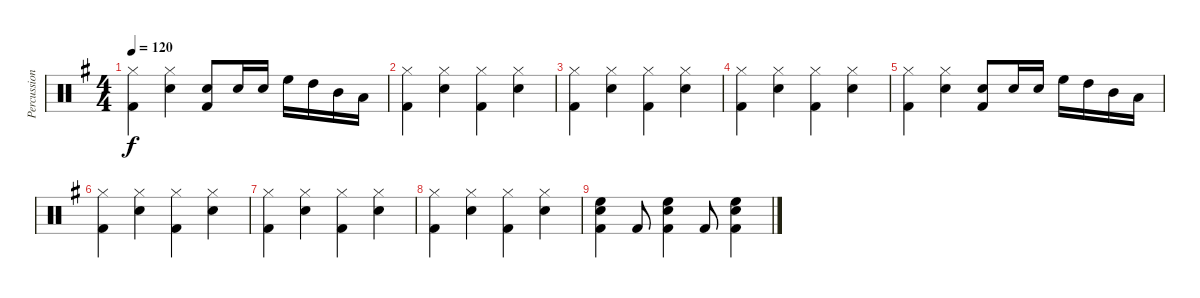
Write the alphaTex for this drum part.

\track ("Percussion" "Percussion") {instrument percussion}
\staff {score}
\articulation defaults
\ts (4 4)
\tempo 120
\clef neutral
\ks eminor
("Hi-Hat (closed)" "Kick (hit) 2").4{dy f} ("Hi-Hat (closed)" "Snare (hit) 2").4 ("Snare (hit) 2" "Kick (hit) 2").8 "Snare (hit) 2".16 "Snare (hit) 2".16 "High Floor Tom (hit)".16 "High Tom (hit)".16 "Mid Tom (hit)".16 "Low Tom (hit)".16 |
("Hi-Hat (closed)" "Kick (hit) 2").4 ("Hi-Hat (closed)" "Snare (hit) 2").4 ("Hi-Hat (closed)" "Kick (hit) 2").4 ("Hi-Hat (closed)" "Snare (hit) 2").4 |
("Hi-Hat (closed)" "Kick (hit) 2").4 ("Hi-Hat (closed)" "Snare (hit) 2").4 ("Hi-Hat (closed)" "Kick (hit) 2").4 ("Hi-Hat (closed)" "Snare (hit) 2").4 |
("Hi-Hat (closed)" "Kick (hit) 2").4 ("Hi-Hat (closed)" "Snare (hit) 2").4 ("Hi-Hat (closed)" "Kick (hit) 2").4 ("Hi-Hat (closed)" "Snare (hit) 2").4 |
("Hi-Hat (closed)" "Kick (hit) 2").4 ("Hi-Hat (closed)" "Snare (hit) 2").4 ("Snare (hit) 2" "Kick (hit) 2").8 "Snare (hit) 2".16 "Snare (hit) 2".16 "High Floor Tom (hit)".16 "High Tom (hit)".16 "Mid Tom (hit)".16 "Low Tom (hit)".16 |
("Hi-Hat (closed)" "Kick (hit) 2").4 ("Hi-Hat (closed)" "Snare (hit) 2").4 ("Hi-Hat (closed)" "Kick (hit) 2").4 ("Hi-Hat (closed)" "Snare (hit) 2").4 |
("Hi-Hat (closed)" "Kick (hit) 2").4 ("Hi-Hat (closed)" "Snare (hit) 2").4 ("Hi-Hat (closed)" "Kick (hit) 2").4 ("Hi-Hat (closed)" "Snare (hit) 2").4 |
("Hi-Hat (closed)" "Kick (hit) 2").4 ("Hi-Hat (closed)" "Snare (hit) 2").4 ("Hi-Hat (closed)" "Kick (hit) 2").4 ("Hi-Hat (closed)" "Snare (hit) 2").4 |
("Snare (hit) 2" "High Floor Tom (hit)" "Kick (hit) 2").4 "Kick (hit) 2".8 ("Snare (hit) 2" "High Floor Tom (hit)" "Kick (hit) 2").4 "Kick (hit) 2".8 ("Snare (hit) 2" "High Floor Tom (hit)" "Kick (hit) 2").4
